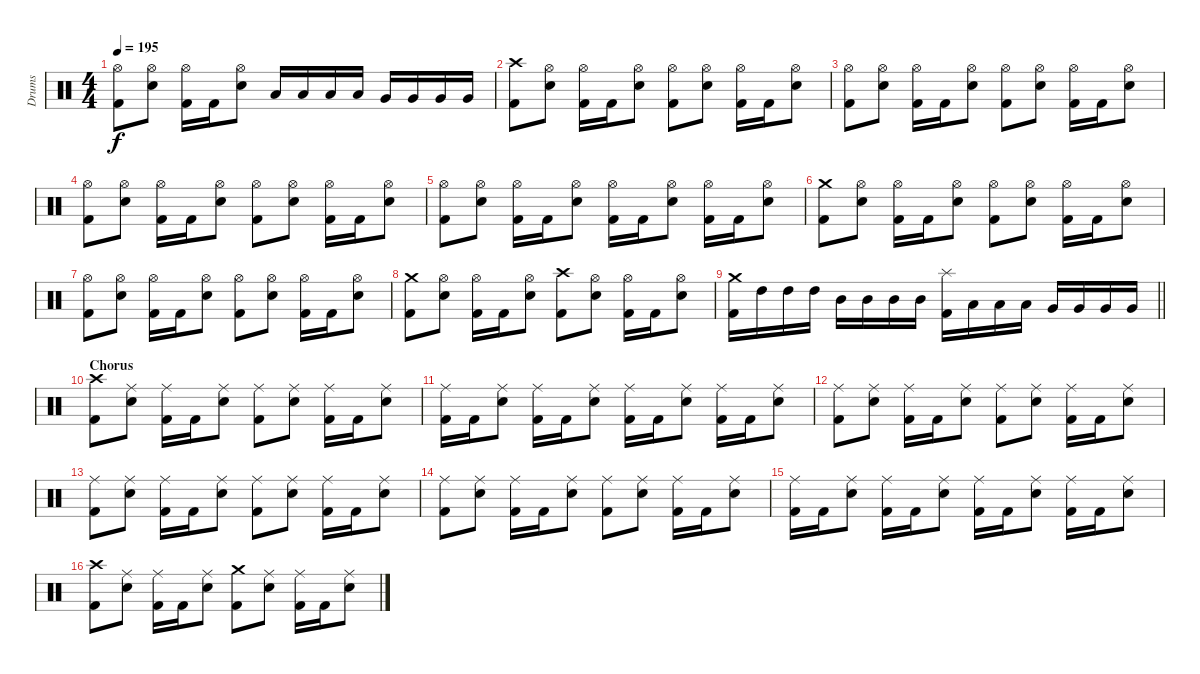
\track ("Drums" "Drums") {instrument percussion}
\staff {score}
\articulation defaults
\ts (4 4)
\tempo 195
\clef neutral
\ks c
("Hi-Hat (open)" "Kick (hit) 2").8{dy f} ("Hi-Hat (open)" "Electric Snare (hit)").8 ("Hi-Hat (open)" "Kick (hit) 2").16 "Kick (hit) 2".16 ("Hi-Hat (open)" "Electric Snare (hit)").8 "Low Tom (hit)".16 "Low Tom (hit)".16 "Low Tom (hit)".16 "Low Tom (hit)".16 "Very Low Tom (hit)".16 "Very Low Tom (hit)".16 "Very Low Tom (hit)".16 "Very Low Tom (hit)".16 |
("Crash high (hit)" "Kick (hit) 2").8 ("Hi-Hat (open)" "Electric Snare (hit)").8 ("Hi-Hat (open)" "Kick (hit) 2").16 "Kick (hit) 2".16 ("Hi-Hat (open)" "Electric Snare (hit)").8 ("Hi-Hat (open)" "Kick (hit) 2").8 ("Hi-Hat (open)" "Electric Snare (hit)").8 ("Hi-Hat (open)" "Kick (hit) 2").16 "Kick (hit) 2".16 ("Hi-Hat (open)" "Electric Snare (hit)").8 |
("Hi-Hat (open)" "Kick (hit) 2").8 ("Hi-Hat (open)" "Electric Snare (hit)").8 ("Hi-Hat (open)" "Kick (hit) 2").16 "Kick (hit) 2".16 ("Hi-Hat (open)" "Electric Snare (hit)").8 ("Hi-Hat (open)" "Kick (hit) 2").8 ("Hi-Hat (open)" "Electric Snare (hit)").8 ("Hi-Hat (open)" "Kick (hit) 2").16 "Kick (hit) 2".16 ("Hi-Hat (open)" "Electric Snare (hit)").8 |
("Hi-Hat (open)" "Kick (hit) 2").8 ("Hi-Hat (open)" "Electric Snare (hit)").8 ("Hi-Hat (open)" "Kick (hit) 2").16 "Kick (hit) 2".16 ("Hi-Hat (open)" "Electric Snare (hit)").8 ("Hi-Hat (open)" "Kick (hit) 2").8 ("Hi-Hat (open)" "Electric Snare (hit)").8 ("Hi-Hat (open)" "Kick (hit) 2").16 "Kick (hit) 2".16 ("Hi-Hat (open)" "Electric Snare (hit)").8 |
("Hi-Hat (open)" "Kick (hit) 2").8 ("Hi-Hat (open)" "Electric Snare (hit)").8 ("Hi-Hat (open)" "Kick (hit) 2").16 "Kick (hit) 2".16 ("Hi-Hat (open)" "Electric Snare (hit)").8 ("Hi-Hat (open)" "Kick (hit) 2").16 "Kick (hit) 2".16 ("Hi-Hat (open)" "Electric Snare (hit)").8 ("Hi-Hat (open)" "Kick (hit) 2").16 "Kick (hit) 2".16 ("Hi-Hat (open)" "Electric Snare (hit)").8 |
("Crash medium (hit)" "Kick (hit) 2").8 ("Hi-Hat (open)" "Electric Snare (hit)").8 ("Hi-Hat (open)" "Kick (hit) 2").16 "Kick (hit) 2".16 ("Hi-Hat (open)" "Electric Snare (hit)").8 ("Hi-Hat (open)" "Kick (hit) 2").8 ("Hi-Hat (open)" "Electric Snare (hit)").8 ("Hi-Hat (open)" "Kick (hit) 2").16 "Kick (hit) 2".16 ("Hi-Hat (open)" "Electric Snare (hit)").8 |
("Hi-Hat (open)" "Kick (hit) 2").8 ("Hi-Hat (open)" "Electric Snare (hit)").8 ("Hi-Hat (open)" "Kick (hit) 2").16 "Kick (hit) 2".16 ("Hi-Hat (open)" "Electric Snare (hit)").8 ("Hi-Hat (open)" "Kick (hit) 2").8 ("Hi-Hat (open)" "Electric Snare (hit)").8 ("Hi-Hat (open)" "Kick (hit) 2").16 "Kick (hit) 2".16 ("Hi-Hat (open)" "Electric Snare (hit)").8 |
("Crash medium (hit)" "Kick (hit) 2").8 ("Hi-Hat (open)" "Electric Snare (hit)").8 ("Hi-Hat (open)" "Kick (hit) 2").16 "Kick (hit) 2".16 ("Hi-Hat (open)" "Electric Snare (hit)").8 ("Crash high (hit)" "Kick (hit) 2").8 ("Hi-Hat (open)" "Electric Snare (hit)").8 ("Hi-Hat (open)" "Kick (hit) 2").16 "Kick (hit) 2".16 ("Hi-Hat (open)" "Electric Snare (hit)").8 |
\barLineRight lightlight
("Crash medium (hit)" "Kick (hit) 2").16 "High Tom (hit)".16 "High Tom (hit)".16 "High Tom (hit)".16 "Mid Tom (hit)".16 "Mid Tom (hit)".16 "Mid Tom (hit)".16 "Mid Tom (hit)".16 ("Splash (hit)" "Kick (hit) 2").16 "Low Tom (hit)".16 "Low Tom (hit)".16 "Low Tom (hit)".16 "Very Low Tom (hit)".16 "Very Low Tom (hit)".16 "Very Low Tom (hit)".16 "Very Low Tom (hit)".16 |
\section ("" "Chorus")
("Crash high (hit)" "Kick (hit) 2").8 ("Ride (middle)" "Electric Snare (hit)").8 ("Ride (middle)" "Kick (hit) 2").16 "Kick (hit) 2".16 ("Ride (middle)" "Electric Snare (hit)").8 ("Ride (middle)" "Kick (hit) 2").8 ("Ride (middle)" "Electric Snare (hit)").8 ("Ride (middle)" "Kick (hit) 2").16 "Kick (hit) 2".16 ("Ride (middle)" "Electric Snare (hit)").8 |
("Ride (middle)" "Kick (hit) 2").16 "Kick (hit) 2".16 ("Ride (middle)" "Electric Snare (hit)").8 ("Ride (middle)" "Kick (hit) 2").16 "Kick (hit) 2".16 ("Ride (middle)" "Electric Snare (hit)").8 ("Ride (middle)" "Kick (hit) 2").16 "Kick (hit) 2".16 ("Ride (middle)" "Electric Snare (hit)").8 ("Ride (middle)" "Kick (hit) 2").16 "Kick (hit) 2".16 ("Ride (middle)" "Electric Snare (hit)").8 |
("Ride (middle)" "Kick (hit) 2").8 ("Ride (middle)" "Electric Snare (hit)").8 ("Ride (middle)" "Kick (hit) 2").16 "Kick (hit) 2".16 ("Ride (middle)" "Electric Snare (hit)").8 ("Ride (middle)" "Kick (hit) 2").8 ("Ride (middle)" "Electric Snare (hit)").8 ("Ride (middle)" "Kick (hit) 2").16 "Kick (hit) 2".16 ("Ride (middle)" "Electric Snare (hit)").8 |
("Ride (middle)" "Kick (hit) 2").8 ("Ride (middle)" "Electric Snare (hit)").8 ("Ride (middle)" "Kick (hit) 2").16 "Kick (hit) 2".16 ("Ride (middle)" "Electric Snare (hit)").8 ("Ride (middle)" "Kick (hit) 2").8 ("Ride (middle)" "Electric Snare (hit)").8 ("Ride (middle)" "Kick (hit) 2").16 "Kick (hit) 2".16 ("Ride (middle)" "Electric Snare (hit)").8 |
("Ride (middle)" "Kick (hit) 2").8 ("Ride (middle)" "Electric Snare (hit)").8 ("Ride (middle)" "Kick (hit) 2").16 "Kick (hit) 2".16 ("Ride (middle)" "Electric Snare (hit)").8 ("Ride (middle)" "Kick (hit) 2").8 ("Ride (middle)" "Electric Snare (hit)").8 ("Ride (middle)" "Kick (hit) 2").16 "Kick (hit) 2".16 ("Ride (middle)" "Electric Snare (hit)").8 |
("Ride (middle)" "Kick (hit) 2").16 "Kick (hit) 2".16 ("Ride (middle)" "Electric Snare (hit)").8 ("Ride (middle)" "Kick (hit) 2").16 "Kick (hit) 2".16 ("Ride (middle)" "Electric Snare (hit)").8 ("Ride (middle)" "Kick (hit) 2").16 "Kick (hit) 2".16 ("Ride (middle)" "Electric Snare (hit)").8 ("Ride (middle)" "Kick (hit) 2").16 "Kick (hit) 2".16 ("Ride (middle)" "Electric Snare (hit)").8 |
("Crash high (hit)" "Kick (hit) 2").8 ("Ride (middle)" "Electric Snare (hit)").8 ("Ride (middle)" "Kick (hit) 2").16 "Kick (hit) 2".16 ("Ride (middle)" "Electric Snare (hit)").8 ("Crash medium (hit)" "Kick (hit) 2").8 ("Ride (middle)" "Electric Snare (hit)").8 ("Ride (middle)" "Kick (hit) 2").16 "Kick (hit) 2".16 ("Ride (middle)" "Electric Snare (hit)").8
